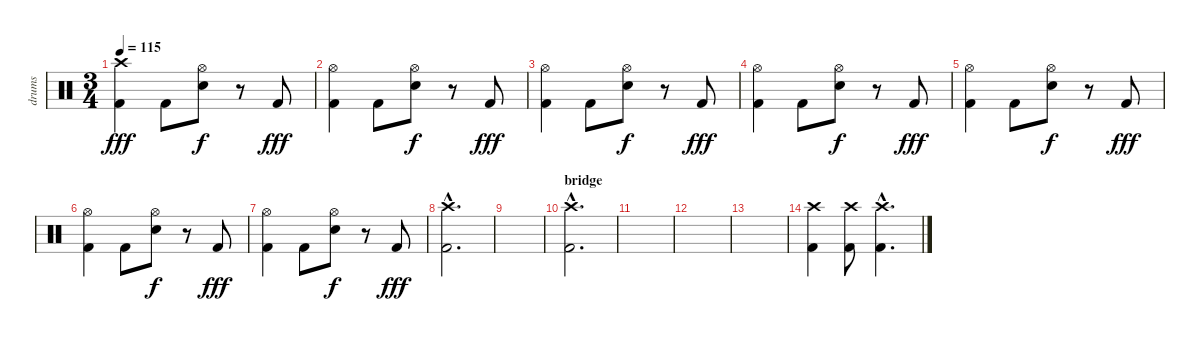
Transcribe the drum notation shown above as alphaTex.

\track ("drums" "drums") {instrument percussion}
\staff {score}
\articulation defaults
\ts (3 4)
\tempo 115
\clef neutral
\ks c
("Crash high (hit)" "Kick (hit) 2").4{dy fff} "Kick (hit) 2".8 ("Hi-Hat (open)" "Snare (hit) 2").8{dy f} r.8 "Kick (hit) 2".8{dy fff} |
("Hi-Hat (open)" "Kick (hit) 2").4 "Kick (hit) 2".8 ("Hi-Hat (open)" "Snare (hit) 2").8{dy f} r.8 "Kick (hit) 2".8{dy fff} |
("Hi-Hat (open)" "Kick (hit) 2").4 "Kick (hit) 2".8 ("Hi-Hat (open)" "Snare (hit) 2").8{dy f} r.8 "Kick (hit) 2".8{dy fff} |
("Hi-Hat (open)" "Kick (hit) 2").4 "Kick (hit) 2".8 ("Hi-Hat (open)" "Snare (hit) 2").8{dy f} r.8 "Kick (hit) 2".8{dy fff} |
("Hi-Hat (open)" "Kick (hit) 2").4 "Kick (hit) 2".8 ("Hi-Hat (open)" "Snare (hit) 2").8{dy f} r.8 "Kick (hit) 2".8{dy fff} |
("Hi-Hat (open)" "Kick (hit) 2").4 "Kick (hit) 2".8 ("Hi-Hat (open)" "Snare (hit) 2").8{dy f} r.8 "Kick (hit) 2".8{dy fff} |
("Hi-Hat (open)" "Kick (hit) 2").4 "Kick (hit) 2".8 ("Hi-Hat (open)" "Snare (hit) 2").8{dy f} r.8 "Kick (hit) 2".8{dy fff} |
("Crash high (hit)"{hac} "Kick (hit) 2"{hac}).2{d} |
|
\section ("" "bridge")
("Crash high (hit)"{hac} "Kick (hit) 2"{hac}).2{d} |
|
|
|
("Crash high (hit)" "Kick (hit) 2").4 ("Crash high (hit)" "Kick (hit) 2").8 ("Crash high (hit)"{hac} "Kick (hit) 2"{hac}).4{d}
